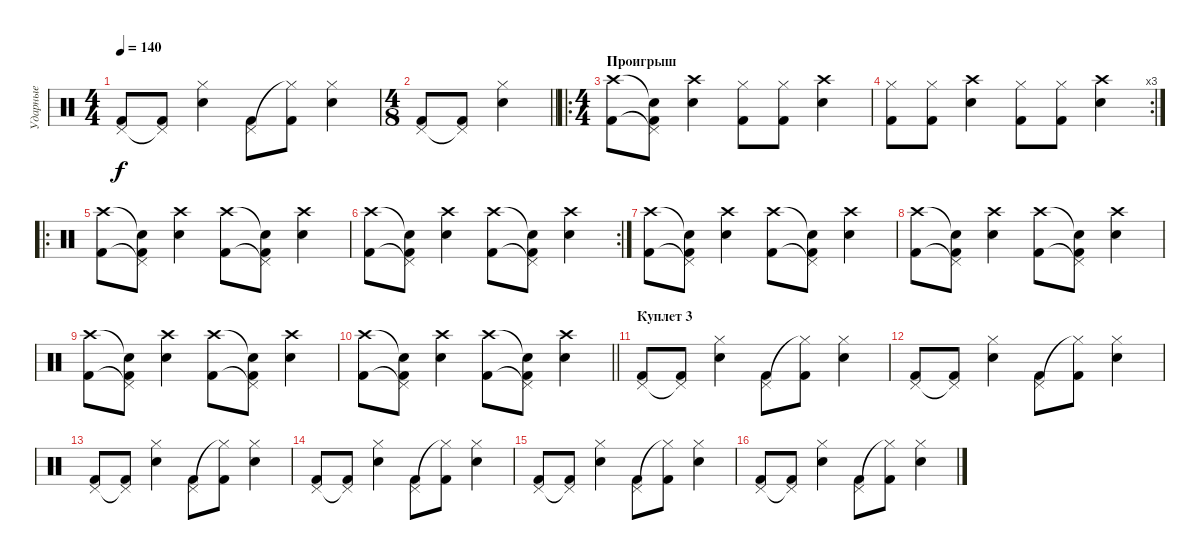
\track ("Ударные" "Ударные") {instrument percussion}
\staff {score}
\articulation defaults
\ts (4 4)
\tempo 140
\clef neutral
\ks c
("Pedal Hi-Hat (hit)" "Kick (hit) 2").8{dy f} ("Pedal Hi-Hat (hit)"{t} "Kick (hit) 2").8 ("Hi-Hat (closed)" "Snare (hit) 2").4 ("Pedal Hi-Hat (hit)" "Kick (hit) 2").8 ("Hi-Hat (closed)"{t} "Kick (hit) 2").8 ("Hi-Hat (closed)" "Snare (hit) 2").4 |
\ts (4 8)
\barLineRight lightlight
("Pedal Hi-Hat (hit)" "Kick (hit) 2").8 ("Pedal Hi-Hat (hit)"{t} "Kick (hit) 2").8 ("Hi-Hat (closed)" "Snare (hit) 2").4 |
\ro
\ts (4 4)
\section ("" "Проигрыш")
("Crash high (hit)" "Kick (hit) 2").8 ("Snare (hit)"{t} "Pedal Hi-Hat (hit)"{t} "Kick (hit) 2").8 ("Crash high (hit)" "Snare (hit) 2").4 ("Hi-Hat (closed)" "Kick (hit) 2").8 ("Hi-Hat (closed)" "Kick (hit) 2").8 ("Crash high (hit)" "Snare (hit) 2").4 |
\rc 3
("Hi-Hat (closed)" "Kick (hit) 2").8 ("Hi-Hat (closed)" "Kick (hit) 2").8 ("Crash high (hit)" "Snare (hit) 2").4 ("Hi-Hat (closed)" "Kick (hit) 2").8 ("Hi-Hat (closed)" "Kick (hit) 2").8 ("Crash high (hit)" "Snare (hit) 2").4 |
\ro
("Crash high (hit)" "Kick (hit) 2").8 ("Snare (hit)"{t} "Pedal Hi-Hat (hit)"{t} "Kick (hit) 2").8 ("Crash high (hit)" "Snare (hit) 2").4 ("Crash high (hit)" "Kick (hit) 2").8 ("Snare (hit)"{t} "Pedal Hi-Hat (hit)"{t} "Kick (hit) 2").8 ("Crash high (hit)" "Snare (hit) 2").4 |
\rc 2
("Crash high (hit)" "Kick (hit) 2").8 ("Snare (hit)"{t} "Pedal Hi-Hat (hit)"{t} "Kick (hit) 2").8 ("Crash high (hit)" "Snare (hit) 2").4 ("Crash high (hit)" "Kick (hit) 2").8 ("Snare (hit)"{t} "Pedal Hi-Hat (hit)"{t} "Kick (hit) 2").8 ("Crash high (hit)" "Snare (hit) 2").4 |
("Crash high (hit)" "Kick (hit) 2").8 ("Snare (hit)"{t} "Pedal Hi-Hat (hit)"{t} "Kick (hit) 2").8 ("Crash high (hit)" "Snare (hit) 2").4 ("Crash high (hit)" "Kick (hit) 2").8 ("Snare (hit)"{t} "Pedal Hi-Hat (hit)"{t} "Kick (hit) 2").8 ("Crash high (hit)" "Snare (hit) 2").4 |
("Crash high (hit)" "Kick (hit) 2").8 ("Snare (hit)"{t} "Pedal Hi-Hat (hit)"{t} "Kick (hit) 2").8 ("Crash high (hit)" "Snare (hit) 2").4 ("Crash high (hit)" "Kick (hit) 2").8 ("Snare (hit)"{t} "Pedal Hi-Hat (hit)"{t} "Kick (hit) 2").8 ("Crash high (hit)" "Snare (hit) 2").4 |
("Crash high (hit)" "Kick (hit) 2").8 ("Snare (hit)"{t} "Pedal Hi-Hat (hit)"{t} "Kick (hit) 2").8 ("Crash high (hit)" "Snare (hit) 2").4 ("Crash high (hit)" "Kick (hit) 2").8 ("Snare (hit)"{t} "Pedal Hi-Hat (hit)"{t} "Kick (hit) 2").8 ("Crash high (hit)" "Snare (hit) 2").4 |
\barLineRight lightlight
("Crash high (hit)" "Kick (hit) 2").8 ("Snare (hit)"{t} "Pedal Hi-Hat (hit)"{t} "Kick (hit) 2").8 ("Crash high (hit)" "Snare (hit) 2").4 ("Crash high (hit)" "Kick (hit) 2").8 ("Snare (hit)"{t} "Pedal Hi-Hat (hit)"{t} "Kick (hit) 2").8 ("Crash high (hit)" "Snare (hit) 2").4 |
\section ("" "Куплет 3")
("Pedal Hi-Hat (hit)" "Kick (hit) 2").8 ("Pedal Hi-Hat (hit)"{t} "Kick (hit) 2").8 ("Hi-Hat (closed)" "Snare (hit) 2").4 ("Pedal Hi-Hat (hit)" "Kick (hit) 2").8 ("Hi-Hat (closed)"{t} "Kick (hit) 2").8 ("Hi-Hat (closed)" "Snare (hit) 2").4 |
("Pedal Hi-Hat (hit)" "Kick (hit) 2").8 ("Pedal Hi-Hat (hit)"{t} "Kick (hit) 2").8 ("Hi-Hat (closed)" "Snare (hit) 2").4 ("Pedal Hi-Hat (hit)" "Kick (hit) 2").8 ("Hi-Hat (closed)"{t} "Kick (hit) 2").8 ("Hi-Hat (closed)" "Snare (hit) 2").4 |
("Pedal Hi-Hat (hit)" "Kick (hit) 2").8 ("Pedal Hi-Hat (hit)"{t} "Kick (hit) 2").8 ("Hi-Hat (closed)" "Snare (hit) 2").4 ("Pedal Hi-Hat (hit)" "Kick (hit) 2").8 ("Hi-Hat (closed)"{t} "Kick (hit) 2").8 ("Hi-Hat (closed)" "Snare (hit) 2").4 |
("Pedal Hi-Hat (hit)" "Kick (hit) 2").8 ("Pedal Hi-Hat (hit)"{t} "Kick (hit) 2").8 ("Hi-Hat (closed)" "Snare (hit) 2").4 ("Pedal Hi-Hat (hit)" "Kick (hit) 2").8 ("Hi-Hat (closed)"{t} "Kick (hit) 2").8 ("Hi-Hat (closed)" "Snare (hit) 2").4 |
("Pedal Hi-Hat (hit)" "Kick (hit) 2").8 ("Pedal Hi-Hat (hit)"{t} "Kick (hit) 2").8 ("Hi-Hat (closed)" "Snare (hit) 2").4 ("Pedal Hi-Hat (hit)" "Kick (hit) 2").8 ("Hi-Hat (closed)"{t} "Kick (hit) 2").8 ("Hi-Hat (closed)" "Snare (hit) 2").4 |
("Pedal Hi-Hat (hit)" "Kick (hit) 2").8 ("Pedal Hi-Hat (hit)"{t} "Kick (hit) 2").8 ("Hi-Hat (closed)" "Snare (hit) 2").4 ("Pedal Hi-Hat (hit)" "Kick (hit) 2").8 ("Hi-Hat (closed)"{t} "Kick (hit) 2").8 ("Hi-Hat (closed)" "Snare (hit) 2").4
